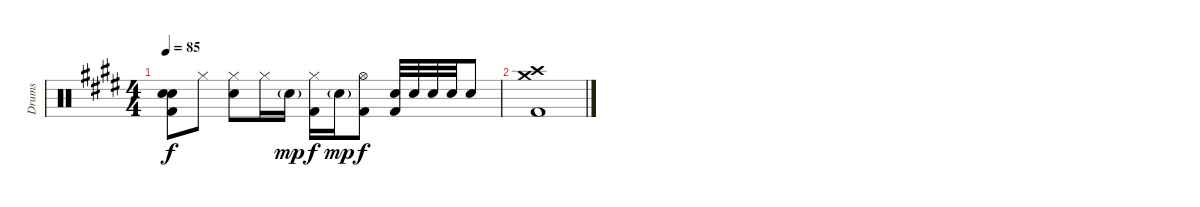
\track ("Drums" "Drums") {instrument percussion}
\staff {score}
\articulation defaults
\ts (4 4)
\tempo 85
\clef neutral
\ks e
("Snare (hit)"{t} "Snare (hit)"{t} "Kick (hit) 2").8{dy f} "Hi-Hat (closed)".8 ("Hi-Hat (closed)" "Snare (hit) 2").8 "Hi-Hat (closed)".16 "Snare (hit) 2"{g}.16{dy mp} ("Hi-Hat (closed)" "Kick (hit) 2").16{dy f} "Snare (hit) 2"{g}.16{dy mp} ("Hi-Hat (open)" "Kick (hit) 2").8{dy f} ("Snare (hit) 2" "Kick (hit) 2").32 "Snare (hit) 2".32 "Snare (hit) 2".32 "Snare (hit) 2".32 "Snare (hit) 2".8 |
("Crash high (hit)" "Crash medium (hit)" "Kick (hit) 2").1
